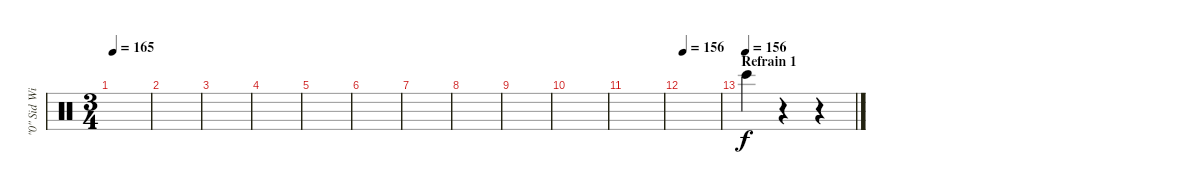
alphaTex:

\track ("\"0\" Sid Wilson (DJ)" "\"0\" Sid Wi") {instrument percussion}
\staff {score}
\articulation defaults
\ts (3 4)
\tempo 165
\clef neutral
\ks c
|
|
|
|
|
|
|
|
|
|
|
\tempo 156
|
\section ("" "Refrain 1")
\tempo (156)
"Bongo High (hit)".4 r.4 r.4
